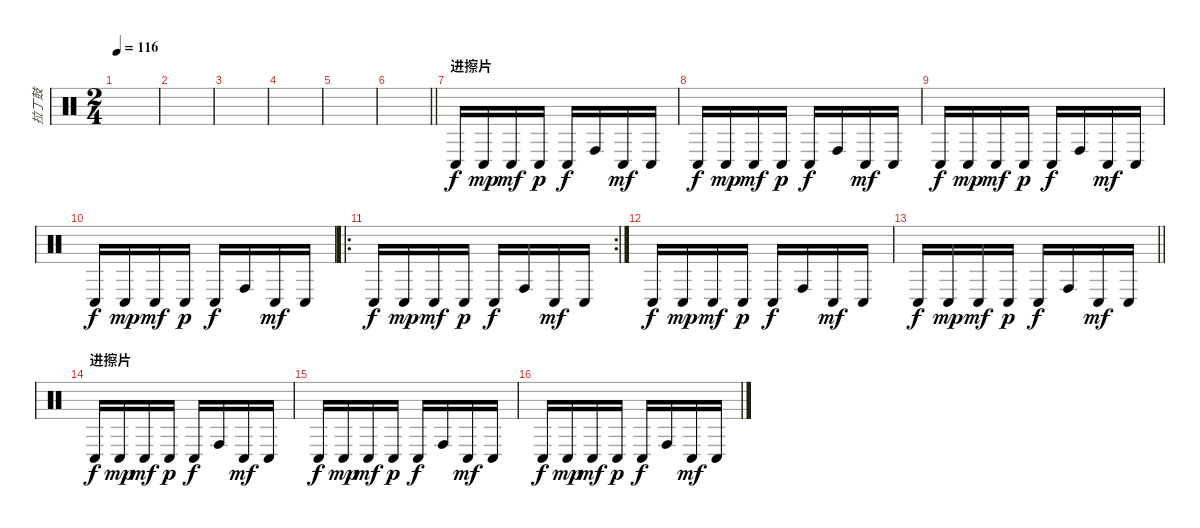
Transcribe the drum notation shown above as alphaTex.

\track ("拉丁鼓" "拉丁鼓") {instrument percussion}
\staff {score}
\articulation defaults
\ts (2 4)
\tempo 116
\clef neutral
\ks c
|
|
|
|
|
\barLineRight lightlight
|
\section ("" "进擦片")
"Conga low (hit)".16{dy f} "Conga low (hit)".16{dy mp} "Conga low (hit)".16{dy mf} "Conga low (hit)".16{dy p} "Conga low (hit)".16{dy f} "Conga high (hit)".16 "Conga low (hit)".16{dy mf} "Conga low (hit)".16 |
"Conga low (hit)".16{dy f} "Conga low (hit)".16{dy mp} "Conga low (hit)".16{dy mf} "Conga low (hit)".16{dy p} "Conga low (hit)".16{dy f} "Conga high (hit)".16 "Conga low (hit)".16{dy mf} "Conga low (hit)".16 |
"Conga low (hit)".16{dy f} "Conga low (hit)".16{dy mp} "Conga low (hit)".16{dy mf} "Conga low (hit)".16{dy p} "Conga low (hit)".16{dy f} "Conga high (hit)".16 "Conga low (hit)".16{dy mf} "Conga low (hit)".16 |
"Conga low (hit)".16{dy f} "Conga low (hit)".16{dy mp} "Conga low (hit)".16{dy mf} "Conga low (hit)".16{dy p} "Conga low (hit)".16{dy f} "Conga high (hit)".16 "Conga low (hit)".16{dy mf} "Conga low (hit)".16 |
\ro
\rc 2 "Conga low (hit)".16{dy f} "Conga low (hit)".16{dy mp} "Conga low (hit)".16{dy mf} "Conga low (hit)".16{dy p} "Conga low (hit)".16{dy f} "Conga high (hit)".16 "Conga low (hit)".16{dy mf} "Conga low (hit)".16
|
"Conga low (hit)".16{dy f} "Conga low (hit)".16{dy mp} "Conga low (hit)".16{dy mf} "Conga low (hit)".16{dy p} "Conga low (hit)".16{dy f} "Conga high (hit)".16 "Conga low (hit)".16{dy mf} "Conga low (hit)".16 |
\barLineRight lightlight "Conga low (hit)".16{dy f} "Conga low (hit)".16{dy mp} "Conga low (hit)".16{dy mf} "Conga low (hit)".16{dy p} "Conga low (hit)".16{dy f} "Conga high (hit)".16 "Conga low (hit)".16{dy mf} "Conga low (hit)".16
|
\section ("" "进擦片")
"Conga low (hit)".16{dy f} "Conga low (hit)".16{dy mp} "Conga low (hit)".16{dy mf} "Conga low (hit)".16{dy p} "Conga low (hit)".16{dy f} "Conga high (hit)".16 "Conga low (hit)".16{dy mf} "Conga low (hit)".16 |
"Conga low (hit)".16{dy f} "Conga low (hit)".16{dy mp} "Conga low (hit)".16{dy mf} "Conga low (hit)".16{dy p} "Conga low (hit)".16{dy f} "Conga high (hit)".16 "Conga low (hit)".16{dy mf} "Conga low (hit)".16 |
"Conga low (hit)".16{dy f} "Conga low (hit)".16{dy mp} "Conga low (hit)".16{dy mf} "Conga low (hit)".16{dy p} "Conga low (hit)".16{dy f} "Conga high (hit)".16 "Conga low (hit)".16{dy mf} "Conga low (hit)".16
